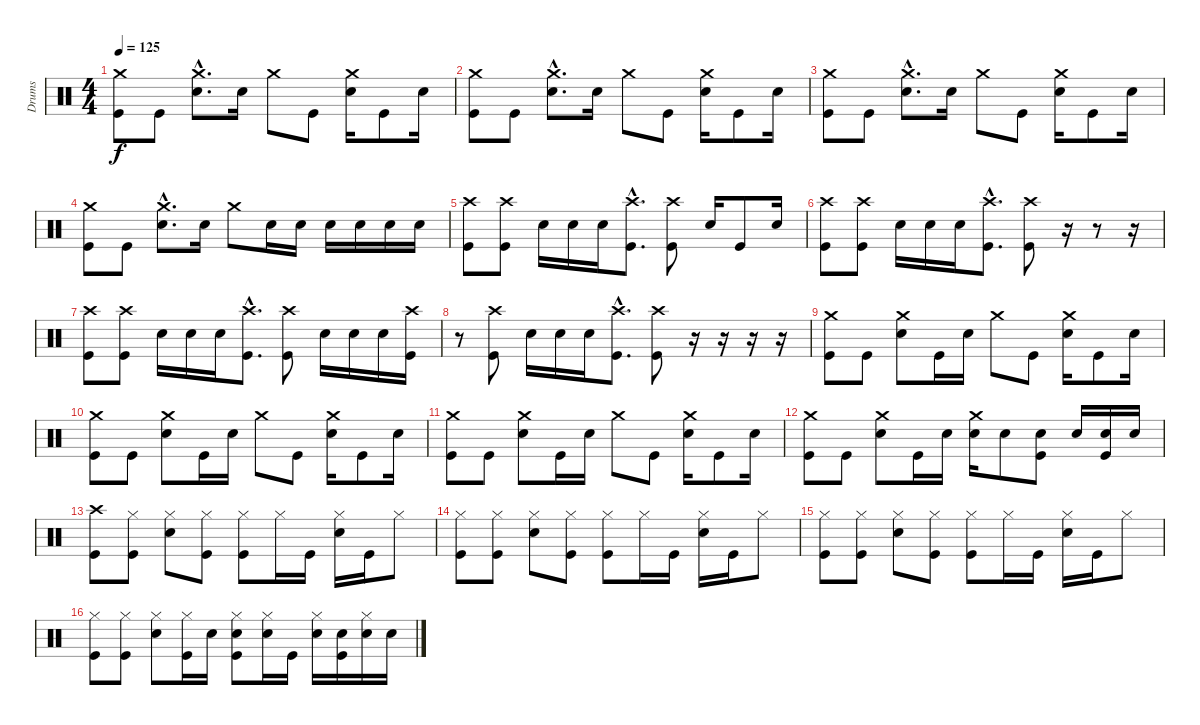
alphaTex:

\track ("Drums" "Drums") {instrument percussion}
\staff {score}
\articulation defaults
\ts (4 4)
\tempo 125
\clef neutral
\ks c
("Kick (hit)" "Crash medium (hit)").8{dy f} "Kick (hit)".8 ("Snare (hit) 2"{hac} "Crash medium (hit)"{hac}).8{d} "Snare (hit) 2".16 "Crash medium (hit)".8 "Kick (hit)".8 ("Snare (hit) 2" "Crash medium (hit)").16 "Kick (hit)".8 "Snare (hit) 2".16 |
("Kick (hit)" "Crash medium (hit)").8 "Kick (hit)".8 ("Snare (hit) 2"{hac} "Crash medium (hit)"{hac}).8{d} "Snare (hit) 2".16 "Crash medium (hit)".8 "Kick (hit)".8 ("Snare (hit) 2" "Crash medium (hit)").16 "Kick (hit)".8 "Snare (hit) 2".16 |
("Kick (hit)" "Crash medium (hit)").8 "Kick (hit)".8 ("Snare (hit) 2"{hac} "Crash medium (hit)"{hac}).8{d} "Snare (hit) 2".16 "Crash medium (hit)".8 "Kick (hit)".8 ("Snare (hit) 2" "Crash medium (hit)").16 "Kick (hit)".8 "Snare (hit) 2".16 |
("Kick (hit)" "Crash medium (hit)").8 "Kick (hit)".8 ("Snare (hit) 2"{hac} "Crash medium (hit)"{hac}).8{d} "Snare (hit) 2".16 "Crash medium (hit)".8 "Snare (hit) 2".16 "Snare (hit) 2".16 "Snare (hit) 2".16 "Snare (hit) 2".16 "Snare (hit) 2".16 "Snare (hit) 2".16 |
("Kick (hit)" "Crash high (hit)").8 ("Kick (hit)" "Crash high (hit)").8 "Snare (hit) 2".16 "Snare (hit) 2".16 "Snare (hit) 2".16 ("Kick (hit)"{hac} "Crash high (hit)"{hac}).8{d} ("Kick (hit)" "Crash high (hit)").8 "Snare (hit) 2".16 "Kick (hit)".8 "Snare (hit) 2".16 |
("Kick (hit)" "Crash high (hit)").8 ("Kick (hit)" "Crash high (hit)").8 "Snare (hit) 2".16 "Snare (hit) 2".16 "Snare (hit) 2".16 ("Kick (hit)"{hac} "Crash high (hit)"{hac}).8{d} ("Kick (hit)" "Crash high (hit)").8 r.16 r.8 r.16 |
("Kick (hit)" "Crash high (hit)").8 ("Kick (hit)" "Crash high (hit)").8 "Snare (hit) 2".16 "Snare (hit) 2".16 "Snare (hit) 2".16 ("Kick (hit)"{hac} "Crash high (hit)"{hac}).8{d} ("Kick (hit)" "Crash high (hit)").8 "Snare (hit) 2".16 "Snare (hit) 2".16 "Snare (hit) 2".16 ("Kick (hit)" "Crash high (hit)").16 |
r.8 ("Kick (hit)" "Crash high (hit)").8 "Snare (hit) 2".16 "Snare (hit) 2".16 "Snare (hit) 2".16 ("Kick (hit)"{hac} "Crash high (hit)"{hac}).8{d} ("Kick (hit)" "Crash high (hit)").8 r.16 r.16 r.16 r.16 |
("Kick (hit)" "Crash medium (hit)").8 "Kick (hit)".8 ("Snare (hit) 2" "Crash medium (hit)").8 "Kick (hit)".16 "Snare (hit) 2".16 "Crash medium (hit)".8 "Kick (hit)".8 ("Snare (hit) 2" "Crash medium (hit)").16 "Kick (hit)".8 "Snare (hit) 2".16 |
("Kick (hit)" "Crash medium (hit)").8 "Kick (hit)".8 ("Snare (hit) 2" "Crash medium (hit)").8 "Kick (hit)".16 "Snare (hit) 2".16 "Crash medium (hit)".8 "Kick (hit)".8 ("Snare (hit) 2" "Crash medium (hit)").16 "Kick (hit)".8 "Snare (hit) 2".16 |
("Kick (hit)" "Crash medium (hit)").8 "Kick (hit)".8 ("Snare (hit) 2" "Crash medium (hit)").8 "Kick (hit)".16 "Snare (hit) 2".16 "Crash medium (hit)".8 "Kick (hit)".8 ("Snare (hit) 2" "Crash medium (hit)").16 "Kick (hit)".8 "Snare (hit) 2".16 |
("Kick (hit)" "Crash medium (hit)").8 "Kick (hit)".8 ("Snare (hit) 2" "Crash medium (hit)").8 "Kick (hit)".16 "Snare (hit) 2".16 ("Snare (hit) 2" "Crash medium (hit)").16 "Snare (hit) 2".8 ("Kick (hit)" "Snare (hit) 2").8 "Snare (hit) 2".16 ("Kick (hit)" "Snare (hit) 2").16 "Snare (hit) 2".16 |
("Kick (hit)" "Crash high (hit)").8 ("Kick (hit)" "Hi-Hat (closed)").8 ("Snare (hit) 2" "Hi-Hat (closed)").8 ("Kick (hit)" "Hi-Hat (closed)").8 ("Kick (hit)" "Hi-Hat (closed)").8 "Hi-Hat (closed)".16 "Kick (hit)".16 ("Snare (hit) 2" "Hi-Hat (closed)").16 "Kick (hit)".16 "Hi-Hat (closed)".8 |
("Kick (hit)" "Hi-Hat (closed)").8 ("Kick (hit)" "Hi-Hat (closed)").8 ("Snare (hit) 2" "Hi-Hat (closed)").8 ("Kick (hit)" "Hi-Hat (closed)").8 ("Kick (hit)" "Hi-Hat (closed)").8 "Hi-Hat (closed)".16 "Kick (hit)".16 ("Snare (hit) 2" "Hi-Hat (closed)").16 "Kick (hit)".16 "Hi-Hat (closed)".8 |
("Kick (hit)" "Hi-Hat (closed)").8 ("Kick (hit)" "Hi-Hat (closed)").8 ("Snare (hit) 2" "Hi-Hat (closed)").8 ("Kick (hit)" "Hi-Hat (closed)").8 ("Kick (hit)" "Hi-Hat (closed)").8 "Hi-Hat (closed)".16 "Kick (hit)".16 ("Snare (hit) 2" "Hi-Hat (closed)").16 "Kick (hit)".16 "Hi-Hat (closed)".8 |
("Kick (hit)" "Hi-Hat (closed)").8 ("Kick (hit)" "Hi-Hat (closed)").8 ("Snare (hit) 2" "Hi-Hat (closed)").8 ("Kick (hit)" "Hi-Hat (closed)").16 "Snare (hit) 2".16 ("Kick (hit)" "Snare (hit) 2" "Hi-Hat (closed)").8 ("Snare (hit) 2" "Hi-Hat (closed)").16 "Kick (hit)".16 ("Snare (hit) 2" "Hi-Hat (closed)").16 ("Kick (hit)" "Snare (hit) 2").16 ("Snare (hit) 2" "Hi-Hat (closed)").16 "Snare (hit) 2".16
